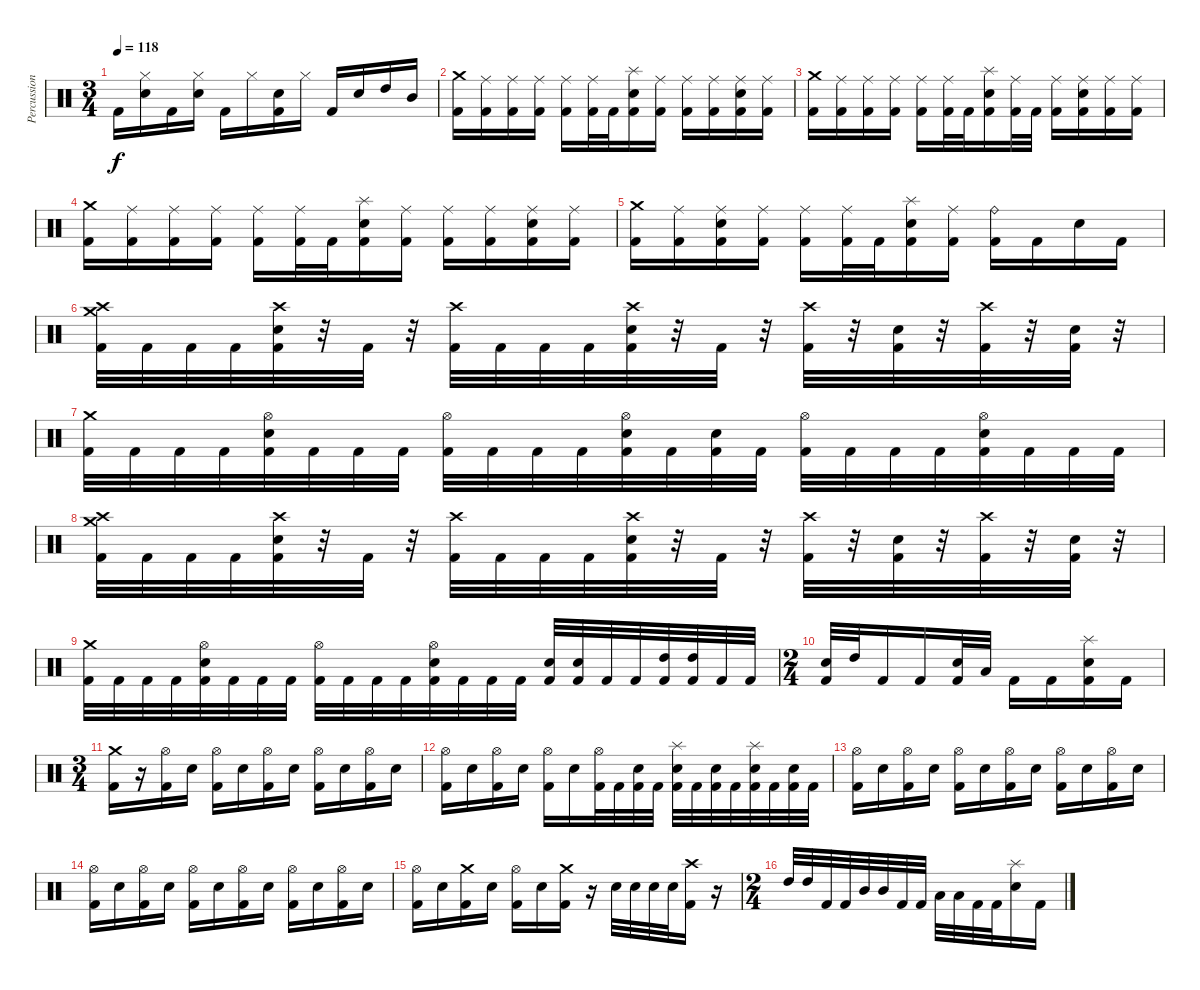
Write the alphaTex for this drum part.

\track ("Percussion" "Percussion") {instrument percussion}
\staff {score}
\articulation defaults
\ts (3 4)
\tempo 118
\clef neutral
\ks c "Kick (hit) 2".16{dy f}
("Hi-Hat (closed)" "Electric Snare (hit)").16 "Kick (hit) 2".16 ("Hi-Hat (closed)" "Electric Snare (hit)").16 "Kick (hit) 2".16 "Hi-Hat (closed)".16 ("Electric Snare (hit)" "Kick (hit) 2").16 "Hi-Hat (closed)".16 "Kick (hit) 2".16 "Electric Snare (hit)".16 "High Tom (hit)".16 "Mid Tom (hit)".16 |
("Crash medium (hit)" "Kick (hit) 2").16 ("Ride (middle)" "Kick (hit) 2").16 ("Ride (middle)" "Kick (hit) 2").16 ("Ride (middle)" "Kick (hit) 2").16 ("Ride (middle)" "Kick (hit) 2").16 ("Ride (middle)" "Kick (hit) 2").32 "Kick (hit) 2".32 ("Splash (hit)" "Electric Snare (hit)" "Kick (hit) 2").16 ("Ride (middle)" "Kick (hit) 2").16 ("Ride (middle)" "Kick (hit) 2").16 ("Ride (middle)" "Kick (hit) 2").16 ("Ride (middle)" "Electric Snare (hit)" "Kick (hit) 2").16 ("Ride (middle)" "Kick (hit) 2").16 |
("Crash medium (hit)" "Kick (hit) 2").16 ("Ride (middle)" "Kick (hit) 2").16 ("Ride (middle)" "Kick (hit) 2").16 ("Ride (middle)" "Kick (hit) 2").16 ("Ride (middle)" "Kick (hit) 2").16 ("Ride (middle)" "Kick (hit) 2").32 "Kick (hit) 2".32 ("Splash (hit)" "Electric Snare (hit)" "Kick (hit) 2").16 ("Ride (middle)" "Kick (hit) 2").32 "Kick (hit) 2".32 ("Ride (middle)" "Kick (hit) 2").16 ("Ride (middle)" "Electric Snare (hit)" "Kick (hit) 2").16 ("Ride (middle)" "Kick (hit) 2").16 ("Ride (middle)" "Kick (hit) 2").16 |
("Crash medium (hit)" "Kick (hit) 2").16 ("Ride (middle)" "Kick (hit) 2").16 ("Ride (middle)" "Kick (hit) 2").16 ("Ride (middle)" "Kick (hit) 2").16 ("Ride (middle)" "Kick (hit) 2").16 ("Ride (middle)" "Kick (hit) 2").32 "Kick (hit) 2".32 ("Splash (hit)" "Electric Snare (hit)" "Kick (hit) 2").16 ("Ride (middle)" "Kick (hit) 2").16 ("Ride (middle)" "Kick (hit) 2").16 ("Ride (middle)" "Kick (hit) 2").16 ("Ride (middle)" "Electric Snare (hit)" "Kick (hit) 2").16 ("Ride (middle)" "Kick (hit) 2").16 |
("Crash medium (hit)" "Kick (hit) 2").16 ("Ride (middle)" "Kick (hit) 2").16 ("Ride (middle)" "Electric Snare (hit)" "Kick (hit) 2").16 ("Ride (middle)" "Kick (hit) 2").16 ("Ride (middle)" "Kick (hit) 2").16 ("Ride (middle)" "Kick (hit) 2").32 "Kick (hit) 2".32 ("Splash (hit)" "Electric Snare (hit)" "Kick (hit) 2").16 ("Ride (middle)" "Kick (hit) 2").16 ("Ride (bell)" "Kick (hit) 2").16 "Kick (hit) 2".16 "Electric Snare (hit)".16 "Kick (hit) 2".16 |
("Crash medium (hit)" "Crash high (hit)" "Kick (hit) 2").32 "Kick (hit) 2".32 "Kick (hit) 2".32 "Kick (hit) 2".32 ("Crash high (hit)" "Electric Snare (hit)" "Kick (hit) 2").32 r.32 "Kick (hit) 2".32 r.32 ("Crash high (hit)" "Kick (hit) 2").32 "Kick (hit) 2".32 "Kick (hit) 2".32 "Kick (hit) 2".32 ("Crash high (hit)" "Electric Snare (hit)" "Kick (hit) 2").32 r.32 "Kick (hit) 2".32 r.32 ("Crash high (hit)" "Kick (hit) 2").32 r.32 ("Electric Snare (hit)" "Kick (hit) 2").32 r.32 ("Crash high (hit)" "Kick (hit) 2").32 r.32 ("Electric Snare (hit)" "Kick (hit) 2").32 r.32 |
("Crash medium (hit)" "Kick (hit) 2").32 "Kick (hit) 2".32 "Kick (hit) 2".32 "Kick (hit) 2".32 ("Hi-Hat (open)" "Electric Snare (hit)" "Kick (hit) 2").32 "Kick (hit) 2".32 "Kick (hit) 2".32 "Kick (hit) 2".32 ("Hi-Hat (open)" "Kick (hit) 2").32 "Kick (hit) 2".32 "Kick (hit) 2".32 "Kick (hit) 2".32 ("Hi-Hat (open)" "Electric Snare (hit)" "Kick (hit) 2").32 "Kick (hit) 2".32 ("Electric Snare (hit)" "Kick (hit) 2").32 "Kick (hit) 2".32 ("Hi-Hat (open)" "Kick (hit) 2").32 "Kick (hit) 2".32 "Kick (hit) 2".32 "Kick (hit) 2".32 ("Hi-Hat (open)" "Electric Snare (hit)" "Kick (hit) 2").32 "Kick (hit) 2".32 "Kick (hit) 2".32 "Kick (hit) 2".32 |
("Crash medium (hit)" "Crash high (hit)" "Kick (hit) 2").32 "Kick (hit) 2".32 "Kick (hit) 2".32 "Kick (hit) 2".32 ("Crash high (hit)" "Electric Snare (hit)" "Kick (hit) 2").32 r.32 "Kick (hit) 2".32 r.32 ("Crash high (hit)" "Kick (hit) 2").32 "Kick (hit) 2".32 "Kick (hit) 2".32 "Kick (hit) 2".32 ("Crash high (hit)" "Electric Snare (hit)" "Kick (hit) 2").32 r.32 "Kick (hit) 2".32 r.32 ("Crash high (hit)" "Kick (hit) 2").32 r.32 ("Electric Snare (hit)" "Kick (hit) 2").32 r.32 ("Crash high (hit)" "Kick (hit) 2").32 r.32 ("Electric Snare (hit)" "Kick (hit) 2").32 r.32 |
("Crash medium (hit)" "Kick (hit) 2").32 "Kick (hit) 2".32 "Kick (hit) 2".32 "Kick (hit) 2".32 ("Hi-Hat (open)" "Electric Snare (hit)" "Kick (hit) 2").32 "Kick (hit) 2".32 "Kick (hit) 2".32 "Kick (hit) 2".32 ("Hi-Hat (open)" "Kick (hit) 2").32 "Kick (hit) 2".32 "Kick (hit) 2".32 "Kick (hit) 2".32 ("Hi-Hat (open)" "Electric Snare (hit)" "Kick (hit) 2").32 "Kick (hit) 2".32 "Kick (hit) 2".32 "Kick (hit) 2".32 ("Electric Snare (hit)" "Kick (hit) 2").32 ("Electric Snare (hit)" "Kick (hit) 2").32 "Kick (hit) 2".32 "Kick (hit) 2".32 ("High Tom (hit)" "Kick (hit) 2").32 ("High Tom (hit)" "Kick (hit) 2").32 "Kick (hit) 2".32 "Kick (hit) 2".32 |
\ts (2 4)
("Electric Snare (hit)" "Kick (hit) 2").32 "High Tom (hit)".32 "Kick (hit) 2".16 "Kick (hit) 2".16 ("Electric Snare (hit)" "Kick (hit) 2").32 "Low Tom (hit)".32 "Kick (hit) 2".16 "Kick (hit) 2".16 ("Splash (hit)" "Electric Snare (hit)" "Kick (hit) 2").16 "Kick (hit) 2".16 |
\ts (3 4)
("Crash medium (hit)" "Kick (hit) 2").16 r.16 ("Hi-Hat (open)" "Kick (hit) 2").16 "Electric Snare (hit)".16 ("Hi-Hat (open)" "Kick (hit) 2").16 "Electric Snare (hit)".16 ("Hi-Hat (open)" "Kick (hit) 2").16 "Electric Snare (hit)".16 ("Hi-Hat (open)" "Kick (hit) 2").16 "Electric Snare (hit)".16 ("Hi-Hat (open)" "Kick (hit) 2").16 "Electric Snare (hit)".16 |
("Hi-Hat (open)" "Kick (hit) 2").16 "Electric Snare (hit)".16 ("Hi-Hat (open)" "Kick (hit) 2").16 "Electric Snare (hit)".16 ("Hi-Hat (open)" "Kick (hit) 2").16 "Electric Snare (hit)".16 ("Hi-Hat (open)" "Kick (hit) 2").32 "Kick (hit) 2".32 ("Electric Snare (hit)" "Kick (hit) 2").32 "Kick (hit) 2".32 ("Splash (hit)" "Electric Snare (hit)" "Kick (hit) 2").32 "Kick (hit) 2".32 ("Electric Snare (hit)" "Kick (hit) 2").32 "Kick (hit) 2".32 ("Splash (hit)" "Electric Snare (hit)" "Kick (hit) 2").32 "Kick (hit) 2".32 ("Electric Snare (hit)" "Kick (hit) 2").32 "Kick (hit) 2".32 |
("Hi-Hat (open)" "Kick (hit) 2").16 "Electric Snare (hit)".16 ("Hi-Hat (open)" "Kick (hit) 2").16 "Electric Snare (hit)".16 ("Hi-Hat (open)" "Kick (hit) 2").16 "Electric Snare (hit)".16 ("Hi-Hat (open)" "Kick (hit) 2").16 "Electric Snare (hit)".16 ("Hi-Hat (open)" "Kick (hit) 2").16 "Electric Snare (hit)".16 ("Hi-Hat (open)" "Kick (hit) 2").16 "Electric Snare (hit)".16 |
("Hi-Hat (open)" "Kick (hit) 2").16 "Electric Snare (hit)".16 ("Hi-Hat (open)" "Kick (hit) 2").16 "Electric Snare (hit)".16 ("Hi-Hat (open)" "Kick (hit) 2").16 "Electric Snare (hit)".16 ("Hi-Hat (open)" "Kick (hit) 2").16 "Electric Snare (hit)".16 ("Hi-Hat (open)" "Kick (hit) 2").16 "Electric Snare (hit)".16 ("Hi-Hat (open)" "Kick (hit) 2").16 "Electric Snare (hit)".16 |
("Hi-Hat (open)" "Kick (hit) 2").16 "Electric Snare (hit)".16 ("Crash medium (hit)" "Kick (hit) 2").16 "Electric Snare (hit)".16 ("Hi-Hat (open)" "Kick (hit) 2").16 "Electric Snare (hit)".16 ("Crash medium (hit)" "Kick (hit) 2").16 r.16 "Electric Snare (hit)".32 "Electric Snare (hit)".32 "Electric Snare (hit)".32 "Electric Snare (hit)".32 ("Crash high (hit)" "Kick (hit) 2").16 r.16 |
\ts (2 4)
"High Tom (hit)".32 "High Tom (hit)".32 "Kick (hit) 2".32 "Kick (hit) 2".32 "Mid Tom (hit)".32 "Mid Tom (hit)".32 "Kick (hit) 2".32 "Kick (hit) 2".32 "Low Tom (hit)".32 "Low Tom (hit)".32 "Kick (hit) 2".32 "Kick (hit) 2".32 ("Splash (hit)" "Electric Snare (hit)").16 "Kick (hit) 2".16
